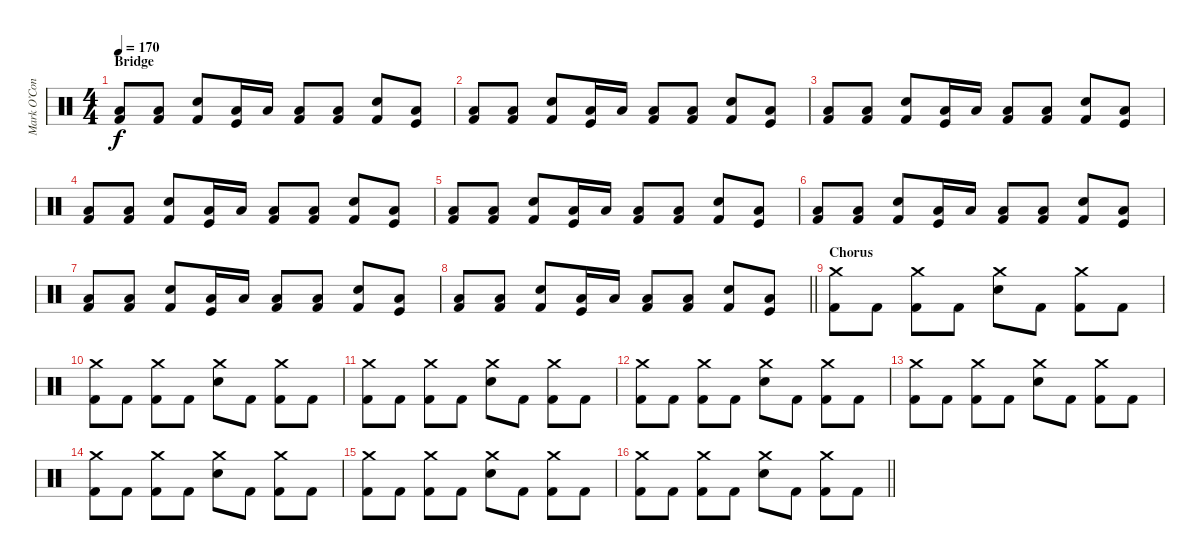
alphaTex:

\track ("Mark O’Connell - Drums" "Mark O’Con") {instrument percussion}
\staff {score}
\articulation defaults
\ts (4 4)
\section ("" "Bridge")
\tempo 170
\clef neutral
\ks c
("Low Tom (hit)" "Kick (hit) 2").8{dy f} ("Low Tom (hit)" "Kick (hit) 2").8 ("Snare (hit) 2" "Kick (hit) 2").8 ("Low Tom (hit)" "Kick (hit)").16 "Low Tom (hit)".16 ("Low Tom (hit)" "Kick (hit) 2").8 ("Low Tom (hit)" "Kick (hit) 2").8 ("Snare (hit) 2" "Kick (hit) 2").8 ("Low Tom (hit)" "Kick (hit)").8 |
("Low Tom (hit)" "Kick (hit) 2").8 ("Low Tom (hit)" "Kick (hit) 2").8 ("Snare (hit) 2" "Kick (hit) 2").8 ("Low Tom (hit)" "Kick (hit)").16 "Low Tom (hit)".16 ("Low Tom (hit)" "Kick (hit) 2").8 ("Low Tom (hit)" "Kick (hit) 2").8 ("Snare (hit) 2" "Kick (hit) 2").8 ("Low Tom (hit)" "Kick (hit)").8 |
("Low Tom (hit)" "Kick (hit) 2").8 ("Low Tom (hit)" "Kick (hit) 2").8 ("Snare (hit) 2" "Kick (hit) 2").8 ("Low Tom (hit)" "Kick (hit)").16 "Low Tom (hit)".16 ("Low Tom (hit)" "Kick (hit) 2").8 ("Low Tom (hit)" "Kick (hit) 2").8 ("Snare (hit) 2" "Kick (hit) 2").8 ("Low Tom (hit)" "Kick (hit)").8 |
("Low Tom (hit)" "Kick (hit) 2").8 ("Low Tom (hit)" "Kick (hit) 2").8 ("Snare (hit) 2" "Kick (hit) 2").8 ("Low Tom (hit)" "Kick (hit)").16 "Low Tom (hit)".16 ("Low Tom (hit)" "Kick (hit) 2").8 ("Low Tom (hit)" "Kick (hit) 2").8 ("Snare (hit) 2" "Kick (hit) 2").8 ("Low Tom (hit)" "Kick (hit)").8 |
("Low Tom (hit)" "Kick (hit) 2").8 ("Low Tom (hit)" "Kick (hit) 2").8 ("Snare (hit) 2" "Kick (hit) 2").8 ("Low Tom (hit)" "Kick (hit)").16 "Low Tom (hit)".16 ("Low Tom (hit)" "Kick (hit) 2").8 ("Low Tom (hit)" "Kick (hit) 2").8 ("Snare (hit) 2" "Kick (hit) 2").8 ("Low Tom (hit)" "Kick (hit)").8 |
("Low Tom (hit)" "Kick (hit) 2").8 ("Low Tom (hit)" "Kick (hit) 2").8 ("Snare (hit) 2" "Kick (hit) 2").8 ("Low Tom (hit)" "Kick (hit)").16 "Low Tom (hit)".16 ("Low Tom (hit)" "Kick (hit) 2").8 ("Low Tom (hit)" "Kick (hit) 2").8 ("Snare (hit) 2" "Kick (hit) 2").8 ("Low Tom (hit)" "Kick (hit)").8 |
("Low Tom (hit)" "Kick (hit) 2").8 ("Low Tom (hit)" "Kick (hit) 2").8 ("Snare (hit) 2" "Kick (hit) 2").8 ("Low Tom (hit)" "Kick (hit)").16 "Low Tom (hit)".16 ("Low Tom (hit)" "Kick (hit) 2").8 ("Low Tom (hit)" "Kick (hit) 2").8 ("Snare (hit) 2" "Kick (hit) 2").8 ("Low Tom (hit)" "Kick (hit)").8 |
\barLineRight lightlight
("Low Tom (hit)" "Kick (hit) 2").8 ("Low Tom (hit)" "Kick (hit) 2").8 ("Snare (hit) 2" "Kick (hit) 2").8 ("Low Tom (hit)" "Kick (hit)").16 "Low Tom (hit)".16 ("Low Tom (hit)" "Kick (hit) 2").8 ("Low Tom (hit)" "Kick (hit) 2").8 ("Snare (hit) 2" "Kick (hit) 2").8 ("Low Tom (hit)" "Kick (hit)").8 |
\section ("" "Chorus")
("Crash medium (hit)" "Kick (hit) 2").8 "Kick (hit) 2".8 ("Crash medium (hit)" "Kick (hit) 2").8 "Kick (hit) 2".8 ("Crash medium (hit)" "Snare (hit) 2").8 "Kick (hit) 2".8 ("Crash medium (hit)" "Kick (hit) 2").8 "Kick (hit) 2".8 |
("Crash medium (hit)" "Kick (hit) 2").8 "Kick (hit) 2".8 ("Crash medium (hit)" "Kick (hit) 2").8 "Kick (hit) 2".8 ("Crash medium (hit)" "Snare (hit) 2").8 "Kick (hit) 2".8 ("Crash medium (hit)" "Kick (hit) 2").8 "Kick (hit) 2".8 |
("Crash medium (hit)" "Kick (hit) 2").8 "Kick (hit) 2".8 ("Crash medium (hit)" "Kick (hit) 2").8 "Kick (hit) 2".8 ("Crash medium (hit)" "Snare (hit) 2").8 "Kick (hit) 2".8 ("Crash medium (hit)" "Kick (hit) 2").8 "Kick (hit) 2".8 |
("Crash medium (hit)" "Kick (hit) 2").8 "Kick (hit) 2".8 ("Crash medium (hit)" "Kick (hit) 2").8 "Kick (hit) 2".8 ("Crash medium (hit)" "Snare (hit) 2").8 "Kick (hit) 2".8 ("Crash medium (hit)" "Kick (hit) 2").8 "Kick (hit) 2".8 |
("Crash medium (hit)" "Kick (hit) 2").8 "Kick (hit) 2".8 ("Crash medium (hit)" "Kick (hit) 2").8 "Kick (hit) 2".8 ("Crash medium (hit)" "Snare (hit) 2").8 "Kick (hit) 2".8 ("Crash medium (hit)" "Kick (hit) 2").8 "Kick (hit) 2".8 |
("Crash medium (hit)" "Kick (hit) 2").8 "Kick (hit) 2".8 ("Crash medium (hit)" "Kick (hit) 2").8 "Kick (hit) 2".8 ("Crash medium (hit)" "Snare (hit) 2").8 "Kick (hit) 2".8 ("Crash medium (hit)" "Kick (hit) 2").8 "Kick (hit) 2".8 |
("Crash medium (hit)" "Kick (hit) 2").8 "Kick (hit) 2".8 ("Crash medium (hit)" "Kick (hit) 2").8 "Kick (hit) 2".8 ("Crash medium (hit)" "Snare (hit) 2").8 "Kick (hit) 2".8 ("Crash medium (hit)" "Kick (hit) 2").8 "Kick (hit) 2".8 |
\barLineRight lightlight
("Crash medium (hit)" "Kick (hit) 2").8 "Kick (hit) 2".8 ("Crash medium (hit)" "Kick (hit) 2").8 "Kick (hit) 2".8 ("Crash medium (hit)" "Snare (hit) 2").8 "Kick (hit) 2".8 ("Crash medium (hit)" "Kick (hit) 2").8 "Kick (hit) 2".8
